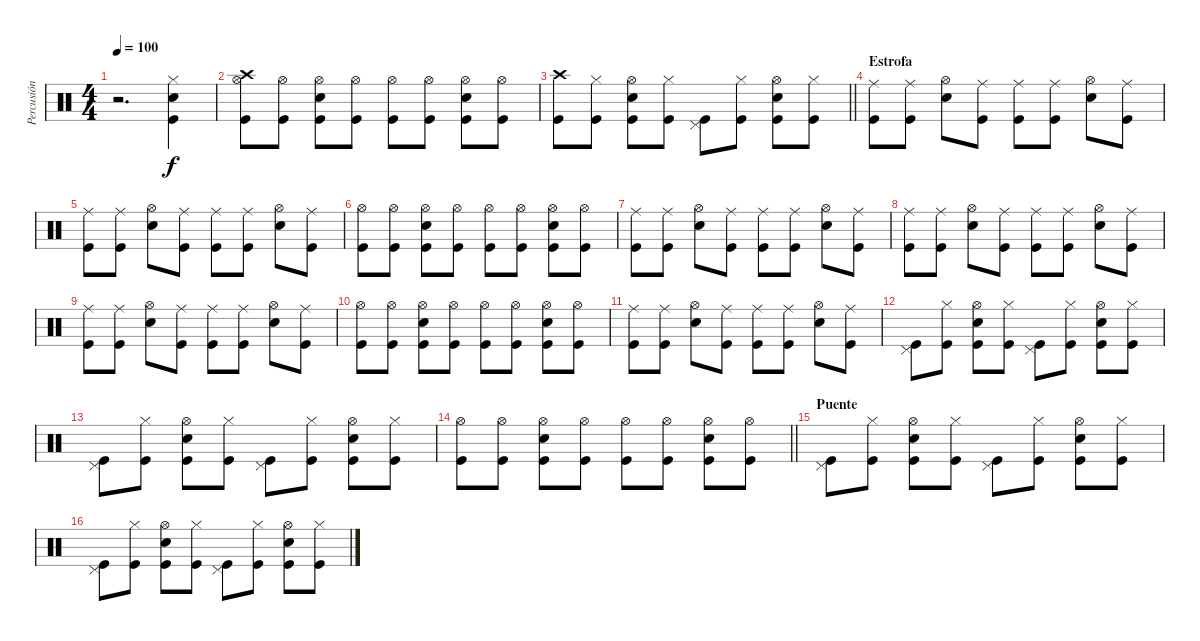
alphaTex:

\track ("Percusión" "Percusión") {instrument percussion}
\staff {score}
\articulation defaults
\ts (4 4)
\tempo 100
\clef neutral
\ks c
r.2{d dy f} ("Snare (hit) 2" "Kick (hit)" "Hi-Hat (closed)").4 |
("Kick (hit)" "Hi-Hat (open)" "Crash high (hit)").8 ("Kick (hit)" "Hi-Hat (open)").8 ("Snare (hit) 2" "Kick (hit)" "Hi-Hat (open)").8 ("Kick (hit)" "Hi-Hat (open)").8 ("Kick (hit)" "Hi-Hat (open)").8 ("Kick (hit)" "Hi-Hat (open)").8 ("Snare (hit) 2" "Kick (hit)" "Hi-Hat (open)").8 ("Kick (hit)" "Hi-Hat (open)").8 |
\barLineRight lightlight
("Kick (hit)" "Crash high (hit)").8 ("Kick (hit)" "Hi-Hat (closed)").8 ("Snare (hit) 2" "Kick (hit)" "Hi-Hat (open)").8 ("Kick (hit)" "Hi-Hat (closed)").8 ("Kick (hit)" "Pedal Hi-Hat (hit)").8 ("Kick (hit)" "Hi-Hat (closed)").8 ("Snare (hit) 2" "Kick (hit)" "Hi-Hat (open)").8 ("Kick (hit)" "Hi-Hat (closed)").8 |
\section ("" "Estrofa")
("Kick (hit)" "Ride (middle)").8 ("Kick (hit)" "Ride (middle)").8 ("Snare (hit) 2" "Hi-Hat (open)").8 ("Kick (hit)" "Ride (middle)").8 ("Kick (hit)" "Ride (middle)").8 ("Kick (hit)" "Ride (middle)").8 ("Snare (hit) 2" "Hi-Hat (open)").8 ("Kick (hit)" "Ride (middle)").8 |
("Kick (hit)" "Ride (middle)").8 ("Kick (hit)" "Ride (middle)").8 ("Snare (hit) 2" "Hi-Hat (open)").8 ("Kick (hit)" "Ride (middle)").8 ("Kick (hit)" "Ride (middle)").8 ("Kick (hit)" "Ride (middle)").8 ("Snare (hit) 2" "Hi-Hat (open)").8 ("Kick (hit)" "Ride (middle)").8 |
("Kick (hit)" "Hi-Hat (open)").8 ("Kick (hit)" "Hi-Hat (open)").8 ("Snare (hit) 2" "Kick (hit)" "Hi-Hat (open)").8 ("Kick (hit)" "Hi-Hat (open)").8 ("Kick (hit)" "Hi-Hat (open)").8 ("Kick (hit)" "Hi-Hat (open)").8 ("Snare (hit) 2" "Kick (hit)" "Hi-Hat (open)").8 ("Kick (hit)" "Hi-Hat (open)").8 |
("Kick (hit)" "Ride (middle)").8 ("Kick (hit)" "Ride (middle)").8 ("Snare (hit) 2" "Hi-Hat (open)").8 ("Kick (hit)" "Ride (middle)").8 ("Kick (hit)" "Ride (middle)").8 ("Kick (hit)" "Ride (middle)").8 ("Snare (hit) 2" "Hi-Hat (open)").8 ("Kick (hit)" "Ride (middle)").8 |
("Kick (hit)" "Ride (middle)").8 ("Kick (hit)" "Ride (middle)").8 ("Snare (hit) 2" "Hi-Hat (open)").8 ("Kick (hit)" "Ride (middle)").8 ("Kick (hit)" "Ride (middle)").8 ("Kick (hit)" "Ride (middle)").8 ("Snare (hit) 2" "Hi-Hat (open)").8 ("Kick (hit)" "Ride (middle)").8 |
("Kick (hit)" "Ride (middle)").8 ("Kick (hit)" "Ride (middle)").8 ("Snare (hit) 2" "Hi-Hat (open)").8 ("Kick (hit)" "Ride (middle)").8 ("Kick (hit)" "Ride (middle)").8 ("Kick (hit)" "Ride (middle)").8 ("Snare (hit) 2" "Hi-Hat (open)").8 ("Kick (hit)" "Ride (middle)").8 |
("Kick (hit)" "Hi-Hat (open)").8 ("Kick (hit)" "Hi-Hat (open)").8 ("Snare (hit) 2" "Kick (hit)" "Hi-Hat (open)").8 ("Kick (hit)" "Hi-Hat (open)").8 ("Kick (hit)" "Hi-Hat (open)").8 ("Kick (hit)" "Hi-Hat (open)").8 ("Snare (hit) 2" "Kick (hit)" "Hi-Hat (open)").8 ("Kick (hit)" "Hi-Hat (open)").8 |
("Kick (hit)" "Ride (middle)").8 ("Kick (hit)" "Ride (middle)").8 ("Snare (hit) 2" "Hi-Hat (open)").8 ("Kick (hit)" "Ride (middle)").8 ("Kick (hit)" "Ride (middle)").8 ("Kick (hit)" "Ride (middle)").8 ("Snare (hit) 2" "Hi-Hat (open)").8 ("Kick (hit)" "Ride (middle)").8 |
("Kick (hit)" "Pedal Hi-Hat (hit)").8 ("Kick (hit)" "Hi-Hat (closed)").8 ("Snare (hit) 2" "Kick (hit)" "Hi-Hat (open)").8 ("Kick (hit)" "Hi-Hat (closed)").8 ("Kick (hit)" "Pedal Hi-Hat (hit)").8 ("Kick (hit)" "Hi-Hat (closed)").8 ("Snare (hit) 2" "Kick (hit)" "Hi-Hat (open)").8 ("Kick (hit)" "Hi-Hat (closed)").8 |
("Kick (hit)" "Pedal Hi-Hat (hit)").8 ("Kick (hit)" "Hi-Hat (closed)").8 ("Snare (hit) 2" "Kick (hit)" "Hi-Hat (open)").8 ("Kick (hit)" "Hi-Hat (closed)").8 ("Kick (hit)" "Pedal Hi-Hat (hit)").8 ("Kick (hit)" "Hi-Hat (closed)").8 ("Snare (hit) 2" "Kick (hit)" "Hi-Hat (open)").8 ("Kick (hit)" "Hi-Hat (closed)").8 |
\barLineRight lightlight
("Kick (hit)" "Hi-Hat (open)").8 ("Kick (hit)" "Hi-Hat (open)").8 ("Snare (hit) 2" "Kick (hit)" "Hi-Hat (open)").8 ("Kick (hit)" "Hi-Hat (open)").8 ("Kick (hit)" "Hi-Hat (open)").8 ("Kick (hit)" "Hi-Hat (open)").8 ("Snare (hit) 2" "Kick (hit)" "Hi-Hat (open)").8 ("Kick (hit)" "Hi-Hat (open)").8 |
\section ("" "Puente")
("Kick (hit)" "Pedal Hi-Hat (hit)").8 ("Kick (hit)" "Hi-Hat (closed)").8 ("Snare (hit) 2" "Kick (hit)" "Hi-Hat (open)").8 ("Kick (hit)" "Hi-Hat (closed)").8 ("Kick (hit)" "Pedal Hi-Hat (hit)").8 ("Kick (hit)" "Hi-Hat (closed)").8 ("Snare (hit) 2" "Kick (hit)" "Hi-Hat (open)").8 ("Kick (hit)" "Hi-Hat (closed)").8 |
("Kick (hit)" "Pedal Hi-Hat (hit)").8 ("Kick (hit)" "Hi-Hat (closed)").8 ("Snare (hit) 2" "Kick (hit)" "Hi-Hat (open)").8 ("Kick (hit)" "Hi-Hat (closed)").8 ("Kick (hit)" "Pedal Hi-Hat (hit)").8 ("Kick (hit)" "Hi-Hat (closed)").8 ("Snare (hit) 2" "Kick (hit)" "Hi-Hat (open)").8 ("Kick (hit)" "Hi-Hat (closed)").8
